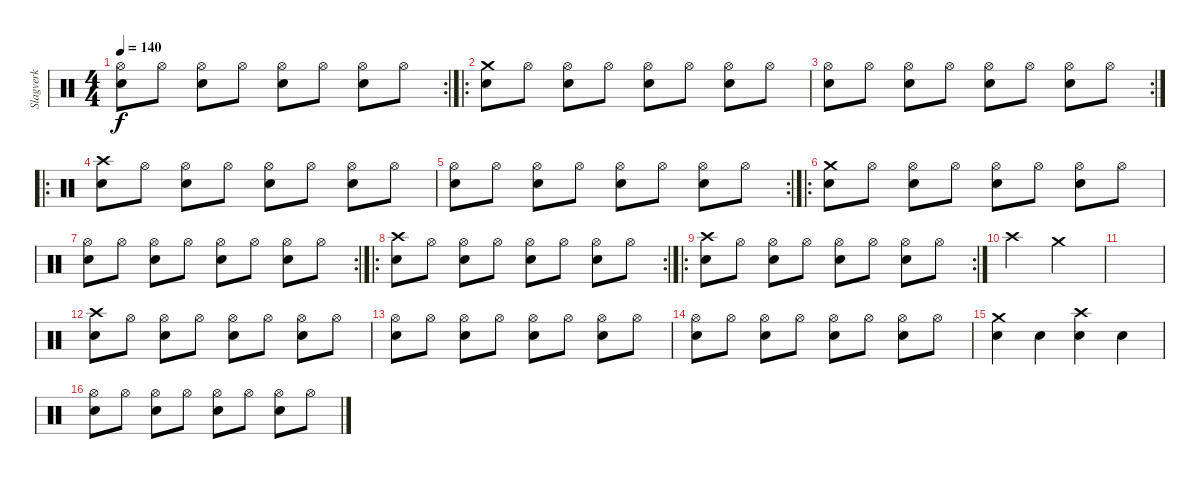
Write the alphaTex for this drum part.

\track ("Slagverk" "Slagverk") {instrument percussion}
\staff {score}
\articulation defaults
\rc 2
\ts (4 4)
\tempo 140
\clef neutral
\ks c
("Hi-Hat (open)" "Snare (hit) 2").8{dy f} "Hi-Hat (open)".8 ("Hi-Hat (open)" "Snare (hit) 2").8 "Hi-Hat (open)".8 ("Hi-Hat (open)" "Snare (hit) 2").8 "Hi-Hat (open)".8 ("Hi-Hat (open)" "Snare (hit) 2").8 "Hi-Hat (open)".8 |
\ro
("Crash medium (hit)" "Snare (hit) 2").8 "Hi-Hat (open)".8 ("Hi-Hat (open)" "Snare (hit) 2").8 "Hi-Hat (open)".8 ("Hi-Hat (open)" "Snare (hit) 2").8 "Hi-Hat (open)".8 ("Hi-Hat (open)" "Snare (hit) 2").8 "Hi-Hat (open)".8 |
\rc 2
("Hi-Hat (open)" "Snare (hit) 2").8 "Hi-Hat (open)".8 ("Hi-Hat (open)" "Snare (hit) 2").8 "Hi-Hat (open)".8 ("Hi-Hat (open)" "Snare (hit) 2").8 "Hi-Hat (open)".8 ("Hi-Hat (open)" "Snare (hit) 2").8 "Hi-Hat (open)".8 |
\ro
("Crash high (hit)" "Snare (hit) 2").8 "Hi-Hat (open)".8 ("Hi-Hat (open)" "Snare (hit) 2").8 "Hi-Hat (open)".8 ("Hi-Hat (open)" "Snare (hit) 2").8 "Hi-Hat (open)".8 ("Hi-Hat (open)" "Snare (hit) 2").8 "Hi-Hat (open)".8 |
\rc 2
("Hi-Hat (open)" "Snare (hit) 2").8 "Hi-Hat (open)".8 ("Hi-Hat (open)" "Snare (hit) 2").8 "Hi-Hat (open)".8 ("Hi-Hat (open)" "Snare (hit) 2").8 "Hi-Hat (open)".8 ("Hi-Hat (open)" "Snare (hit) 2").8 "Hi-Hat (open)".8 |
\ro
("Crash medium (hit)" "Snare (hit) 2").8 "Hi-Hat (open)".8 ("Hi-Hat (open)" "Snare (hit) 2").8 "Hi-Hat (open)".8 ("Hi-Hat (open)" "Snare (hit) 2").8 "Hi-Hat (open)".8 ("Hi-Hat (open)" "Snare (hit) 2").8 "Hi-Hat (open)".8 |
\rc 2
("Hi-Hat (open)" "Snare (hit) 2").8 "Hi-Hat (open)".8 ("Hi-Hat (open)" "Snare (hit) 2").8 "Hi-Hat (open)".8 ("Hi-Hat (open)" "Snare (hit) 2").8 "Hi-Hat (open)".8 ("Hi-Hat (open)" "Snare (hit) 2").8 "Hi-Hat (open)".8 |
\ro
\rc 2
("Crash high (hit)" "Snare (hit) 2").8 "Hi-Hat (open)".8 ("Hi-Hat (open)" "Snare (hit) 2").8 "Hi-Hat (open)".8 ("Hi-Hat (open)" "Snare (hit) 2").8 "Hi-Hat (open)".8 ("Hi-Hat (open)" "Snare (hit) 2").8 "Hi-Hat (open)".8 |
\ro
\rc 2
("Crash high (hit)" "Snare (hit) 2").8 "Hi-Hat (open)".8 ("Hi-Hat (open)" "Snare (hit) 2").8 "Hi-Hat (open)".8 ("Hi-Hat (open)" "Snare (hit) 2").8 "Hi-Hat (open)".8 ("Hi-Hat (open)" "Snare (hit) 2").8 "Hi-Hat (open)".8 |
"Crash high (hit)".2 "Crash medium (hit)".2 |
|
("Crash high (hit)" "Snare (hit) 2").8 "Hi-Hat (open)".8 ("Hi-Hat (open)" "Snare (hit) 2").8 "Hi-Hat (open)".8 ("Hi-Hat (open)" "Snare (hit) 2").8 "Hi-Hat (open)".8 ("Hi-Hat (open)" "Snare (hit) 2").8 "Hi-Hat (open)".8 |
("Hi-Hat (open)" "Snare (hit) 2").8 "Hi-Hat (open)".8 ("Hi-Hat (open)" "Snare (hit) 2").8 "Hi-Hat (open)".8 ("Hi-Hat (open)" "Snare (hit) 2").8 "Hi-Hat (open)".8 ("Hi-Hat (open)" "Snare (hit) 2").8 "Hi-Hat (open)".8 |
("Hi-Hat (open)" "Snare (hit) 2").8 "Hi-Hat (open)".8 ("Hi-Hat (open)" "Snare (hit) 2").8 "Hi-Hat (open)".8 ("Hi-Hat (open)" "Snare (hit) 2").8 "Hi-Hat (open)".8 ("Hi-Hat (open)" "Snare (hit) 2").8 "Hi-Hat (open)".8 |
("Crash medium (hit)" "Snare (hit) 2").4 "Snare (hit) 2".4 ("Crash high (hit)" "Snare (hit) 2").4 "Snare (hit) 2".4 |
("Hi-Hat (open)" "Snare (hit) 2").8 "Hi-Hat (open)".8 ("Hi-Hat (open)" "Snare (hit) 2").8 "Hi-Hat (open)".8 ("Hi-Hat (open)" "Snare (hit) 2").8 "Hi-Hat (open)".8 ("Hi-Hat (open)" "Snare (hit) 2").8 "Hi-Hat (open)".8
